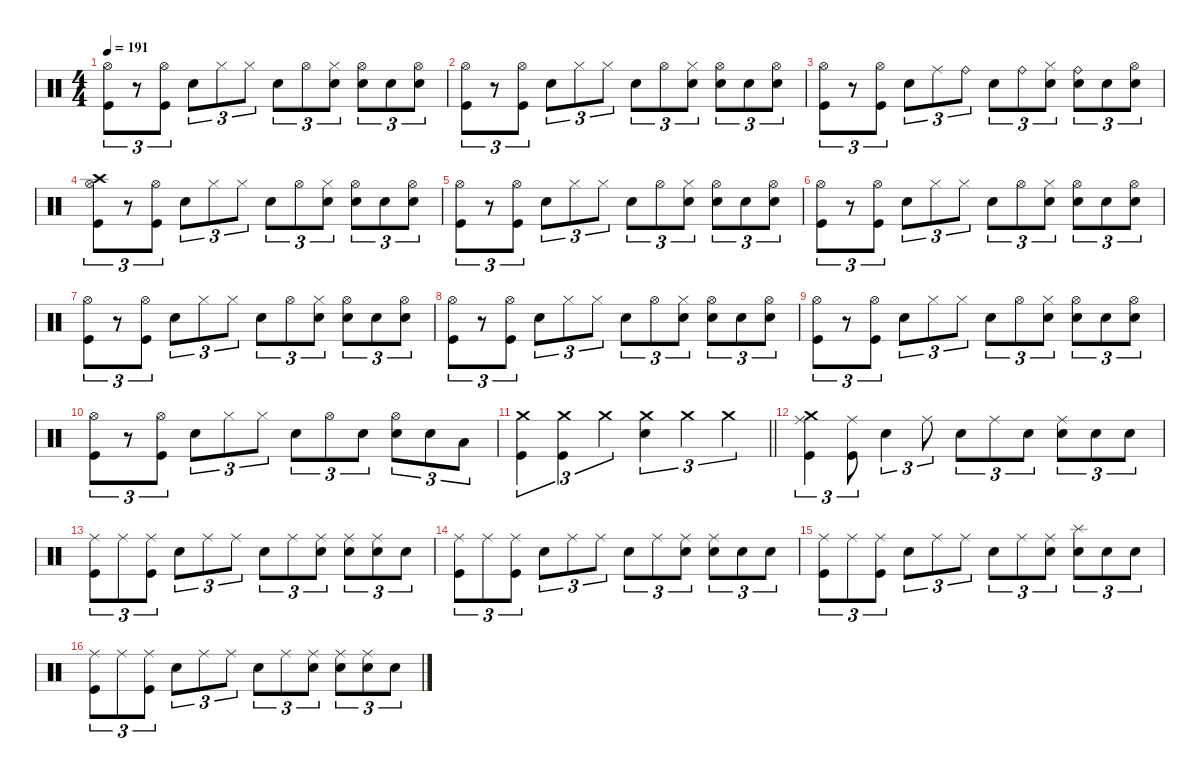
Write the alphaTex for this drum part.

\defaultSystemsLayout 4
\hideDynamics
\bracketExtendMode nobrackets
\singleTrackTrackNamePolicy hidden
\multiTrackTrackNamePolicy hidden
\firstSystemTrackNameMode fullname
\firstSystemTrackNameOrientation horizontal
\otherSystemsTrackNameOrientation horizontal
\track ("Drumkit" "drm.") {instrument percussion}
\staff {score}
\articulation defaults
\ts (4 4)
\tempo 191
\clef neutral
\ks c
("Kick (hit)" "Hi-Hat (open)").8{tu (3 2) dy mf beam Down} r.8{tu (3 2) beam Down} ("Kick (hit)" "Hi-Hat (open)").8{tu (3 2) beam Down} "Snare (hit) 2".8{tu (3 2) dy mp beam Down} "Hi-Hat (closed)".8{tu (3 2) beam Down} "Hi-Hat (closed)".8{tu (3 2) beam Down} "Snare (hit) 2".8{tu (3 2) dy f beam Down} "Hi-Hat (open)".8{tu (3 2) dy mp beam Down} ("Hi-Hat (closed)" "Snare (hit) 2").8{tu (3 2) dy p beam Down} ("Hi-Hat (open)" "Snare (hit) 2").8{tu (3 2) dy mp beam Down} "Snare (hit) 2".8{tu (3 2) beam Down} ("Snare (hit) 2" "Hi-Hat (open)").8{tu (3 2) beam Down} |
("Kick (hit)" "Hi-Hat (open)").8{tu (3 2) dy mf beam Down} r.8{tu (3 2) beam Down} ("Kick (hit)" "Hi-Hat (open)").8{tu (3 2) beam Down} "Snare (hit) 2".8{tu (3 2) dy mp beam Down} "Hi-Hat (closed)".8{tu (3 2) beam Down} "Hi-Hat (closed)".8{tu (3 2) beam Down} "Snare (hit) 2".8{tu (3 2) dy f beam Down} "Hi-Hat (open)".8{tu (3 2) dy mp beam Down} ("Hi-Hat (closed)" "Snare (hit) 2").8{tu (3 2) dy p beam Down} ("Hi-Hat (open)" "Snare (hit) 2").8{tu (3 2) dy mp beam Down} "Snare (hit) 2".8{tu (3 2) beam Down} ("Snare (hit) 2" "Hi-Hat (open)").8{tu (3 2) beam Down} |
("Kick (hit)" "Hi-Hat (open)").8{tu (3 2) dy mf beam Down} r.8{tu (3 2) beam Down} ("Kick (hit)" "Hi-Hat (open)").8{tu (3 2) beam Down} "Snare (hit) 2".8{tu (3 2) dy mp beam Down} "Ride (middle)".8{tu (3 2) beam Down} "Ride (bell)".8{tu (3 2) beam Down} "Snare (hit) 2".8{tu (3 2) dy f beam Down} "Ride (bell)".8{tu (3 2) dy mf beam Down} ("Hi-Hat (closed)" "Snare (hit) 2").8{tu (3 2) dy p beam Down} ("Snare (hit) 2" "Ride (bell)").8{tu (3 2) dy mp beam Down} "Snare (hit) 2".8{tu (3 2) beam Down} ("Snare (hit) 2" "Hi-Hat (open)").8{tu (3 2) beam Down} |
("Kick (hit)" "Hi-Hat (open)" "Crash high (hit)").8{tu (3 2) dy mf beam Down} r.8{tu (3 2) beam Down} ("Kick (hit)" "Hi-Hat (open)").8{tu (3 2) beam Down} "Snare (hit) 2".8{tu (3 2) dy mp beam Down} "Hi-Hat (closed)".8{tu (3 2) beam Down} "Hi-Hat (closed)".8{tu (3 2) beam Down} "Snare (hit) 2".8{tu (3 2) dy f beam Down} "Hi-Hat (open)".8{tu (3 2) dy mp beam Down} ("Hi-Hat (closed)" "Snare (hit) 2").8{tu (3 2) dy p beam Down} ("Hi-Hat (open)" "Snare (hit) 2").8{tu (3 2) dy mp beam Down} "Snare (hit) 2".8{tu (3 2) beam Down} ("Snare (hit) 2" "Hi-Hat (open)").8{tu (3 2) beam Down} |
("Kick (hit)" "Hi-Hat (open)").8{tu (3 2) dy mf beam Down} r.8{tu (3 2) beam Down} ("Kick (hit)" "Hi-Hat (open)").8{tu (3 2) beam Down} "Snare (hit) 2".8{tu (3 2) dy mp beam Down} "Hi-Hat (closed)".8{tu (3 2) beam Down} "Hi-Hat (closed)".8{tu (3 2) beam Down} "Snare (hit) 2".8{tu (3 2) dy f beam Down} "Hi-Hat (open)".8{tu (3 2) dy mp beam Down} ("Hi-Hat (closed)" "Snare (hit) 2").8{tu (3 2) dy p beam Down} ("Hi-Hat (open)" "Snare (hit) 2").8{tu (3 2) dy mp beam Down} "Snare (hit) 2".8{tu (3 2) beam Down} ("Snare (hit) 2" "Hi-Hat (open)").8{tu (3 2) beam Down} |
("Kick (hit)" "Hi-Hat (open)").8{tu (3 2) dy mf beam Down} r.8{tu (3 2) beam Down} ("Kick (hit)" "Hi-Hat (open)").8{tu (3 2) beam Down} "Snare (hit) 2".8{tu (3 2) dy mp beam Down} "Hi-Hat (closed)".8{tu (3 2) beam Down} "Hi-Hat (closed)".8{tu (3 2) beam Down} "Snare (hit) 2".8{tu (3 2) dy f beam Down} "Hi-Hat (open)".8{tu (3 2) dy mp beam Down} ("Hi-Hat (closed)" "Snare (hit) 2").8{tu (3 2) dy p beam Down} ("Hi-Hat (open)" "Snare (hit) 2").8{tu (3 2) dy mp beam Down} "Snare (hit) 2".8{tu (3 2) beam Down} ("Snare (hit) 2" "Hi-Hat (open)").8{tu (3 2) beam Down} |
("Kick (hit)" "Hi-Hat (open)").8{tu (3 2) dy mf beam Down} r.8{tu (3 2) beam Down} ("Kick (hit)" "Hi-Hat (open)").8{tu (3 2) beam Down} "Snare (hit) 2".8{tu (3 2) dy mp beam Down} "Hi-Hat (closed)".8{tu (3 2) beam Down} "Hi-Hat (closed)".8{tu (3 2) beam Down} "Snare (hit) 2".8{tu (3 2) dy f beam Down} "Hi-Hat (open)".8{tu (3 2) dy mp beam Down} ("Hi-Hat (closed)" "Snare (hit) 2").8{tu (3 2) dy p beam Down} ("Hi-Hat (open)" "Snare (hit) 2").8{tu (3 2) dy mp beam Down} "Snare (hit) 2".8{tu (3 2) beam Down} ("Snare (hit) 2" "Hi-Hat (open)").8{tu (3 2) beam Down} |
("Kick (hit)" "Hi-Hat (open)").8{tu (3 2) dy mf beam Down} r.8{tu (3 2) beam Down} ("Kick (hit)" "Hi-Hat (open)").8{tu (3 2) beam Down} "Snare (hit) 2".8{tu (3 2) dy mp beam Down} "Hi-Hat (closed)".8{tu (3 2) beam Down} "Hi-Hat (closed)".8{tu (3 2) beam Down} "Snare (hit) 2".8{tu (3 2) dy f beam Down} "Hi-Hat (open)".8{tu (3 2) dy mp beam Down} ("Hi-Hat (closed)" "Snare (hit) 2").8{tu (3 2) dy p beam Down} ("Hi-Hat (open)" "Snare (hit) 2").8{tu (3 2) dy mp beam Down} "Snare (hit) 2".8{tu (3 2) beam Down} ("Snare (hit) 2" "Hi-Hat (open)").8{tu (3 2) beam Down} |
("Kick (hit)" "Hi-Hat (open)").8{tu (3 2) dy mf beam Down} r.8{tu (3 2) beam Down} ("Kick (hit)" "Hi-Hat (open)").8{tu (3 2) beam Down} "Snare (hit) 2".8{tu (3 2) dy mp beam Down} "Hi-Hat (closed)".8{tu (3 2) beam Down} "Hi-Hat (closed)".8{tu (3 2) beam Down} "Snare (hit) 2".8{tu (3 2) dy f beam Down} "Hi-Hat (open)".8{tu (3 2) dy mp beam Down} ("Hi-Hat (closed)" "Snare (hit) 2").8{tu (3 2) dy p beam Down} ("Hi-Hat (open)" "Snare (hit) 2").8{tu (3 2) dy mp beam Down} "Snare (hit) 2".8{tu (3 2) beam Down} ("Snare (hit) 2" "Hi-Hat (open)").8{tu (3 2) beam Down} |
("Kick (hit)" "Hi-Hat (open)").8{tu (3 2) dy mf beam Down} r.8{tu (3 2) beam Down} ("Kick (hit)" "Hi-Hat (open)").8{tu (3 2) beam Down} "Snare (hit) 2".8{tu (3 2) dy mp beam Down} "Hi-Hat (closed)".8{tu (3 2) beam Down} "Hi-Hat (closed)".8{tu (3 2) beam Down} "Snare (hit) 2".8{tu (3 2) dy f beam Down} "Hi-Hat (open)".8{tu (3 2) beam Down} "Snare (hit) 2".8{tu (3 2) dy p beam Down} ("Hi-Hat (open)" "Snare (hit) 2").8{tu (3 2) dy mf beam Down} "Snare (hit) 2".8{tu (3 2) dy mp beam Down} "Low Tom (hit)".8{tu (3 2) beam Down} |
\barLineRight lightlight
("Kick (hit)" "Crash medium (hit)").4{tu (3 2) beam Down} ("Kick (hit)" "Crash medium (hit)").4{tu (3 2) dy f beam Down} "Crash medium (hit)".4{tu (3 2) dy mf beam Down} ("Snare (hit) 2" "Crash medium (hit)").4{tu (3 2) dy f beam Down} "Crash medium (hit)".4{tu (3 2) dy mf beam Down} "Crash medium (hit)".4{tu (3 2) dy f beam Down} |
("Kick (hit)" "Ride (middle)" "Crash medium (hit)").4{tu (3 2) dy mf beam Down} ("Kick (hit)" "Ride (middle)").8{tu (3 2) beam Down} "Snare (hit) 2".4{tu (3 2) dy mp beam Down} "Ride (middle)".8{tu (3 2) beam Down} "Snare (hit) 2".8{tu (3 2) dy f beam Down} "Ride (middle)".8{tu (3 2) dy mp beam Down} "Snare (hit) 2".8{tu (3 2) dy p beam Down} ("Snare (hit) 2" "Ride (middle)").8{tu (3 2) dy mp beam Down} "Snare (hit) 2".8{tu (3 2) beam Down} "Snare (hit) 2".8{tu (3 2) beam Down} |
("Kick (hit)" "Ride (middle)").8{tu (3 2) dy mf beam Down} "Ride (middle)".8{tu (3 2) dy mp beam Down} ("Kick (hit)" "Ride (middle)").8{tu (3 2) dy mf beam Down} "Snare (hit) 2".8{tu (3 2) dy mp beam Down} "Ride (middle)".8{tu (3 2) beam Down} "Ride (middle)".8{tu (3 2) beam Down} "Snare (hit) 2".8{tu (3 2) dy f beam Down} "Ride (middle)".8{tu (3 2) dy mp beam Down} ("Snare (hit) 2" "Ride (middle)").8{tu (3 2) dy p beam Down} ("Snare (hit) 2" "Ride (middle)").8{tu (3 2) dy mp beam Down} ("Snare (hit) 2" "Ride (middle)").8{tu (3 2) beam Down} "Snare (hit) 2".8{tu (3 2) beam Down} |
("Kick (hit)" "Ride (middle)").8{tu (3 2) dy mf beam Down} "Ride (middle)".8{tu (3 2) dy mp beam Down} ("Kick (hit)" "Ride (middle)").8{tu (3 2) dy mf beam Down} "Snare (hit) 2".8{tu (3 2) dy mp beam Down} "Ride (middle)".8{tu (3 2) beam Down} "Ride (middle)".8{tu (3 2) beam Down} "Snare (hit) 2".8{tu (3 2) dy f beam Down} "Ride (middle)".8{tu (3 2) dy mp beam Down} ("Snare (hit) 2" "Ride (middle)").8{tu (3 2) dy p beam Down} ("Snare (hit) 2" "Ride (middle)").8{tu (3 2) dy mp beam Down} "Snare (hit) 2".8{tu (3 2) beam Down} "Snare (hit) 2".8{tu (3 2) beam Down} |
("Kick (hit)" "Ride (middle)").8{tu (3 2) dy mf beam Down} "Ride (middle)".8{tu (3 2) dy mp beam Down} ("Kick (hit)" "Ride (middle)").8{tu (3 2) dy mf beam Down} "Snare (hit) 2".8{tu (3 2) dy mp beam Down} "Ride (middle)".8{tu (3 2) beam Down} "Ride (middle)".8{tu (3 2) beam Down} "Snare (hit) 2".8{tu (3 2) dy f beam Down} "Ride (middle)".8{tu (3 2) dy mp beam Down} ("Snare (hit) 2" "Ride (middle)").8{tu (3 2) dy p beam Down} ("Snare (hit) 2" "Splash (hit)").8{tu (3 2) dy mp beam Down} "Snare (hit) 2".8{tu (3 2) beam Down} "Snare (hit) 2".8{tu (3 2) beam Down} |
("Kick (hit)" "Ride (middle)").8{tu (3 2) dy mf beam Down} "Ride (middle)".8{tu (3 2) dy mp beam Down} ("Kick (hit)" "Ride (middle)").8{tu (3 2) dy mf beam Down} "Snare (hit) 2".8{tu (3 2) dy mp beam Down} "Ride (middle)".8{tu (3 2) beam Down} "Ride (middle)".8{tu (3 2) beam Down} "Snare (hit) 2".8{tu (3 2) dy f beam Down} "Ride (middle)".8{tu (3 2) dy mp beam Down} ("Snare (hit) 2" "Ride (middle)").8{tu (3 2) dy p beam Down} ("Snare (hit) 2" "Ride (middle)").8{tu (3 2) dy mp beam Down} ("Snare (hit) 2" "Ride (middle)").8{tu (3 2) beam Down} "Snare (hit) 2".8{tu (3 2) beam Down}
